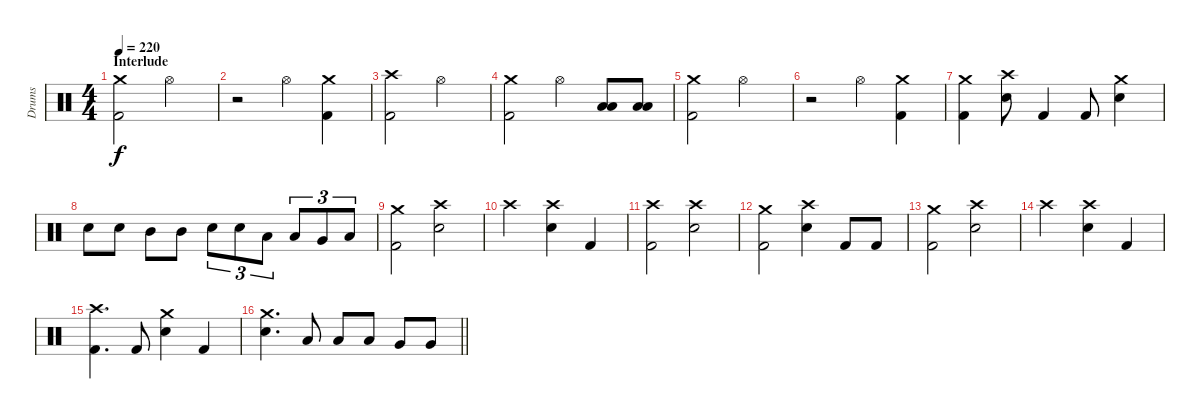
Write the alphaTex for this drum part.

\track ("Drums" "Drums") {instrument percussion}
\staff {score}
\articulation defaults
\ts (4 4)
\section ("" "Interlude")
\tempo 220
\clef neutral
\ks c
("Kick (hit) 2" "Crash medium (hit)").2{dy f} "Hi-Hat (open)".2 |
r.2 "Hi-Hat (open)".4 ("Crash medium (hit)" "Kick (hit) 2").4 |
("Crash high (hit)" "Kick (hit) 2").2 "Hi-Hat (open)".2 |
("Kick (hit) 2" "Crash medium (hit)").2 "Hi-Hat (open)".4 ("Low Tom (hit)" "Low Floor Tom (hit)").8 ("Low Tom (hit)" "Low Floor Tom (hit)").8 |
("Kick (hit) 2" "Crash medium (hit)").2 "Hi-Hat (open)".2 |
r.2 "Hi-Hat (open)".4 ("Crash medium (hit)" "Kick (hit) 2").4 |
("Crash medium (hit)" "Kick (hit) 2").4 ("Electric Snare (hit)" "Crash high (hit)").8 "Kick (hit) 2".4 "Kick (hit) 2".8 ("Electric Snare (hit)" "Crash medium (hit)").4 |
"Electric Snare (hit)".8 "Electric Snare (hit)".8 "Mid Tom (hit)".8 "Mid Tom (hit)".8 "Electric Snare (hit)".8{tu (3 2)} "Electric Snare (hit)".8{tu (3 2)} "Low Tom (hit)".8{tu (3 2)} "Low Tom (hit)".8{tu (3 2)} "Very Low Tom (hit)".8{tu (3 2)} "Low Floor Tom (hit)".8{tu (3 2)} |
("Crash medium (hit)" "Kick (hit) 2").2 ("Crash high (hit)" "Electric Snare (hit)").2 |
"Crash high (hit)".2 ("Crash high (hit)" "Electric Snare (hit)").4 "Kick (hit) 2".4 |
("Kick (hit) 2" "Crash high (hit)").2 ("Electric Snare (hit)" "Crash high (hit)").2 |
("Crash medium (hit)" "Kick (hit) 2").2 ("Crash high (hit)" "Electric Snare (hit)").4 "Kick (hit) 2".8 "Kick (hit) 2".8 |
("Crash medium (hit)" "Kick (hit) 2").2 ("Crash high (hit)" "Electric Snare (hit)").2 |
"Crash high (hit)".2 ("Crash high (hit)" "Electric Snare (hit)").4 "Kick (hit) 2".4 |
("Kick (hit) 2" "Crash high (hit)").4{d} "Kick (hit) 2".8 ("Electric Snare (hit)" "Crash medium (hit)").4 "Kick (hit) 2".4 |
\barLineRight lightlight
("Electric Snare (hit)" "Crash medium (hit)").4{d} "Low Tom (hit)".8 "Low Tom (hit)".8 "Low Tom (hit)".8 "Very Low Tom (hit)".8 "Very Low Tom (hit)".8
